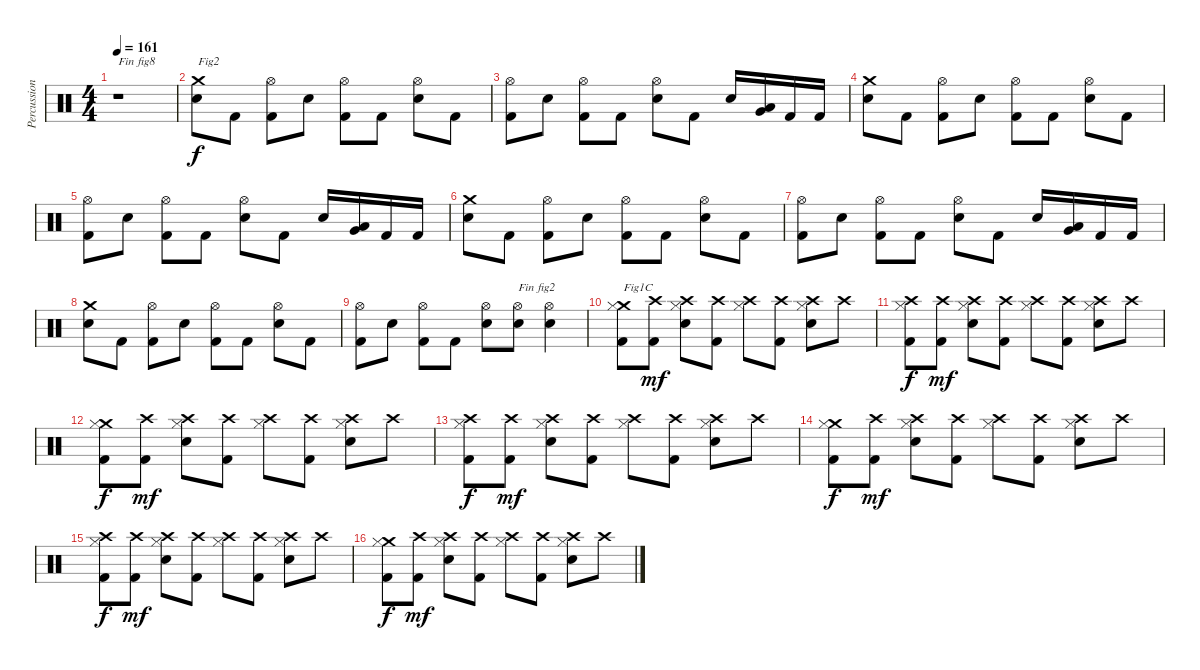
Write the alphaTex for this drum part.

\track ("Percussions" "Percussion") {instrument percussion}
\staff {score}
\articulation defaults
\ts (4 4)
\tempo 161
\clef neutral
\ks c
r.1{txt "Fin fig8" dy f} |
("Electric Snare (hit)" "Crash medium (hit)").8{txt "Fig2"} "Kick (hit) 2".8 ("Kick (hit) 2" "Hi-Hat (open)").8 "Electric Snare (hit)".8 ("Kick (hit) 2" "Hi-Hat (open)").8 "Kick (hit) 2".8 ("Electric Snare (hit)" "Hi-Hat (open)").8 "Kick (hit) 2".8 |
("Kick (hit) 2" "Hi-Hat (open)").8 "Electric Snare (hit)".8 ("Kick (hit) 2" "Hi-Hat (open)").8 "Kick (hit) 2".8 ("Electric Snare (hit)" "Hi-Hat (open)").8 "Kick (hit) 2".8 "Electric Snare (hit)".16 ("Very Low Tom (hit)" "Low Tom (hit)").16 "Kick (hit) 2".16 "Kick (hit) 2".16 |
("Electric Snare (hit)" "Crash medium (hit)").8 "Kick (hit) 2".8 ("Kick (hit) 2" "Hi-Hat (open)").8 "Electric Snare (hit)".8 ("Kick (hit) 2" "Hi-Hat (open)").8 "Kick (hit) 2".8 ("Electric Snare (hit)" "Hi-Hat (open)").8 "Kick (hit) 2".8 |
("Kick (hit) 2" "Hi-Hat (open)").8 "Electric Snare (hit)".8 ("Kick (hit) 2" "Hi-Hat (open)").8 "Kick (hit) 2".8 ("Electric Snare (hit)" "Hi-Hat (open)").8 "Kick (hit) 2".8 "Electric Snare (hit)".16 ("Very Low Tom (hit)" "Low Tom (hit)").16 "Kick (hit) 2".16 "Kick (hit) 2".16 |
("Electric Snare (hit)" "Crash medium (hit)").8 "Kick (hit) 2".8 ("Kick (hit) 2" "Hi-Hat (open)").8 "Electric Snare (hit)".8 ("Kick (hit) 2" "Hi-Hat (open)").8 "Kick (hit) 2".8 ("Electric Snare (hit)" "Hi-Hat (open)").8 "Kick (hit) 2".8 |
("Kick (hit) 2" "Hi-Hat (open)").8 "Electric Snare (hit)".8 ("Kick (hit) 2" "Hi-Hat (open)").8 "Kick (hit) 2".8 ("Electric Snare (hit)" "Hi-Hat (open)").8 "Kick (hit) 2".8 "Electric Snare (hit)".16 ("Very Low Tom (hit)" "Low Tom (hit)").16 "Kick (hit) 2".16 "Kick (hit) 2".16 |
("Electric Snare (hit)" "Crash medium (hit)").8 "Kick (hit) 2".8 ("Kick (hit) 2" "Hi-Hat (open)").8 "Electric Snare (hit)".8 ("Kick (hit) 2" "Hi-Hat (open)").8 "Kick (hit) 2".8 ("Electric Snare (hit)" "Hi-Hat (open)").8 "Kick (hit) 2".8 |
("Kick (hit) 2" "Hi-Hat (open)").8 "Electric Snare (hit)".8 ("Kick (hit) 2" "Hi-Hat (open)").8 "Kick (hit) 2".8 ("Electric Snare (hit)" "Hi-Hat (open)").8 ("Electric Snare (hit)" "Hi-Hat (open)").8{txt "Fin fig2"} ("Electric Snare (hit)" "Hi-Hat (open)").4 |
("Kick (hit) 2" "Crash medium (hit)" "Hi-Hat (closed)").8{txt "Fig1C"} ("Kick (hit) 2" "Crash high (hit)").8{dy mf} ("Electric Snare (hit)" "Crash high (hit)" "Hi-Hat (closed)").8 ("Kick (hit) 2" "Crash high (hit)").8 ("Crash high (hit)" "Hi-Hat (closed)").8 ("Kick (hit) 2" "Crash high (hit)").8 ("Electric Snare (hit)" "Crash high (hit)" "Hi-Hat (closed)").8 "Crash high (hit)".8 |
("Kick (hit) 2" "Crash high (hit)" "Hi-Hat (closed)").8{dy f} ("Kick (hit) 2" "Crash high (hit)").8{dy mf} ("Electric Snare (hit)" "Crash high (hit)" "Hi-Hat (closed)").8 ("Kick (hit) 2" "Crash high (hit)").8 ("Crash high (hit)" "Hi-Hat (closed)").8 ("Kick (hit) 2" "Crash high (hit)").8 ("Electric Snare (hit)" "Crash high (hit)" "Hi-Hat (closed)").8 "Crash high (hit)".8 |
("Kick (hit) 2" "Crash medium (hit)" "Hi-Hat (closed)").8{dy f} ("Kick (hit) 2" "Crash high (hit)").8{dy mf} ("Electric Snare (hit)" "Crash high (hit)" "Hi-Hat (closed)").8 ("Kick (hit) 2" "Crash high (hit)").8 ("Crash high (hit)" "Hi-Hat (closed)").8 ("Kick (hit) 2" "Crash high (hit)").8 ("Electric Snare (hit)" "Crash high (hit)" "Hi-Hat (closed)").8 "Crash high (hit)".8 |
("Kick (hit) 2" "Crash high (hit)" "Hi-Hat (closed)").8{dy f} ("Kick (hit) 2" "Crash high (hit)").8{dy mf} ("Electric Snare (hit)" "Crash high (hit)" "Hi-Hat (closed)").8 ("Kick (hit) 2" "Crash high (hit)").8 ("Crash high (hit)" "Hi-Hat (closed)").8 ("Kick (hit) 2" "Crash high (hit)").8 ("Electric Snare (hit)" "Crash high (hit)" "Hi-Hat (closed)").8 "Crash high (hit)".8 |
("Kick (hit) 2" "Crash medium (hit)" "Hi-Hat (closed)").8{dy f} ("Kick (hit) 2" "Crash high (hit)").8{dy mf} ("Electric Snare (hit)" "Crash high (hit)" "Hi-Hat (closed)").8 ("Kick (hit) 2" "Crash high (hit)").8 ("Crash high (hit)" "Hi-Hat (closed)").8 ("Kick (hit) 2" "Crash high (hit)").8 ("Electric Snare (hit)" "Crash high (hit)" "Hi-Hat (closed)").8 "Crash high (hit)".8 |
("Kick (hit) 2" "Crash high (hit)" "Hi-Hat (closed)").8{dy f} ("Kick (hit) 2" "Crash high (hit)").8{dy mf} ("Electric Snare (hit)" "Crash high (hit)" "Hi-Hat (closed)").8 ("Kick (hit) 2" "Crash high (hit)").8 ("Crash high (hit)" "Hi-Hat (closed)").8 ("Kick (hit) 2" "Crash high (hit)").8 ("Electric Snare (hit)" "Crash high (hit)" "Hi-Hat (closed)").8 "Crash high (hit)".8 |
("Kick (hit) 2" "Crash medium (hit)" "Hi-Hat (closed)").8{dy f} ("Kick (hit) 2" "Crash high (hit)").8{dy mf} ("Electric Snare (hit)" "Crash high (hit)" "Hi-Hat (closed)").8 ("Kick (hit) 2" "Crash high (hit)").8 ("Crash high (hit)" "Hi-Hat (closed)").8 ("Kick (hit) 2" "Crash high (hit)").8 ("Electric Snare (hit)" "Crash high (hit)" "Hi-Hat (closed)").8 "Crash high (hit)".8
